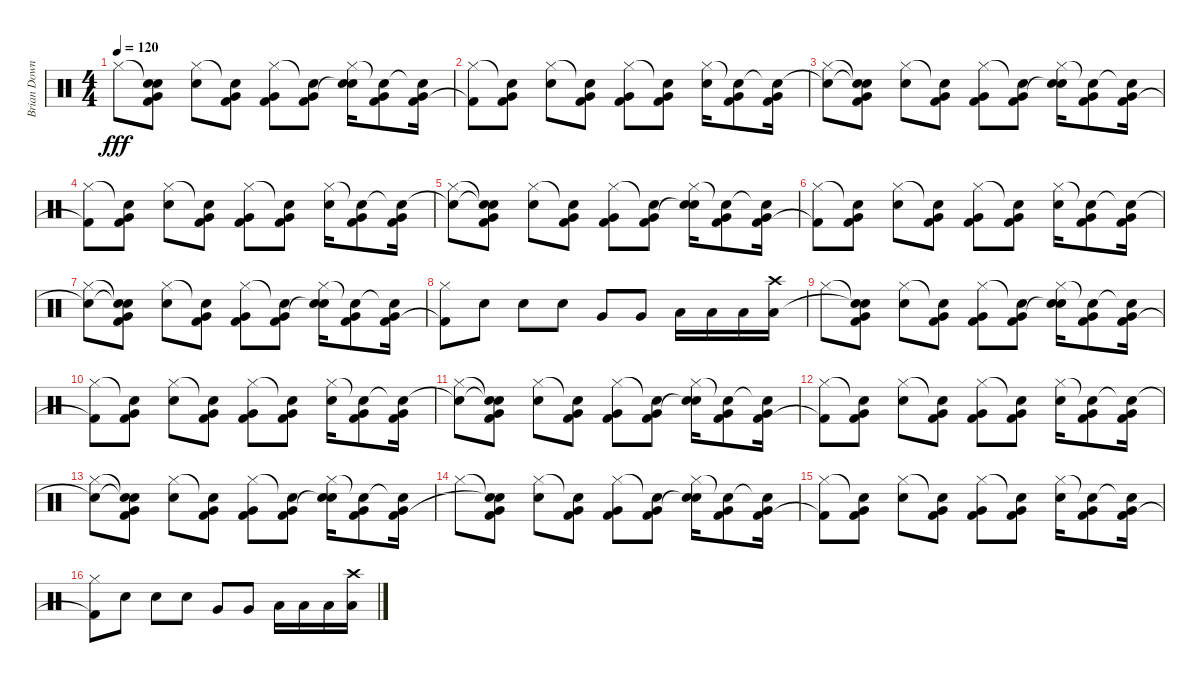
\track ("Brian Downey" "Brian Down") {instrument percussion}
\staff {score}
\articulation defaults
\ts (4 4)
\tempo 120
\clef neutral
\ks c "Hi-Hat (closed)".8{dy fff}
("Snare (hit)"{t} "Snare (hit)"{t} "Kick (hit) 2" "Very Low Tom (hit)").8 ("Hi-Hat (closed)" "Electric Snare (hit)").8 ("Snare (hit)"{t} "Kick (hit) 2" "Very Low Tom (hit)").8 ("Hi-Hat (closed)" "Kick (hit) 2" "Very Low Tom (hit)").8 ("Snare (hit)"{t} "Kick (hit) 2" "Very Low Tom (hit)").8 ("Hi-Hat (closed)" "Electric Snare (hit)" "Snare (hit)"{t}).16 ("Snare (hit)"{t} "Kick (hit) 2" "Very Low Tom (hit)").8 ("Snare (hit)"{t} "Kick (hit) 2" "Very Low Tom (hit)").16 |
("Hi-Hat (closed)" "Kick (hit) 2"{t}).8 ("Snare (hit)"{t} "Kick (hit) 2" "Very Low Tom (hit)").8 ("Hi-Hat (closed)" "Electric Snare (hit)").8 ("Snare (hit)"{t} "Kick (hit) 2" "Very Low Tom (hit)").8 ("Hi-Hat (closed)" "Kick (hit) 2" "Very Low Tom (hit)").8 ("Snare (hit)"{t} "Kick (hit) 2" "Very Low Tom (hit)").8 ("Hi-Hat (closed)" "Electric Snare (hit)").16 ("Snare (hit)"{t} "Kick (hit) 2" "Very Low Tom (hit)").8 ("Snare (hit)"{t} "Kick (hit) 2" "Very Low Tom (hit)").16 |
("Snare (hit)"{t} "Hi-Hat (closed)").8 ("Snare (hit)"{t} "Snare (hit)"{t} "Kick (hit) 2" "Very Low Tom (hit)").8 ("Hi-Hat (closed)" "Electric Snare (hit)").8 ("Snare (hit)"{t} "Kick (hit) 2" "Very Low Tom (hit)").8 ("Hi-Hat (closed)" "Kick (hit) 2" "Very Low Tom (hit)").8 ("Snare (hit)"{t} "Kick (hit) 2" "Very Low Tom (hit)").8 ("Hi-Hat (closed)" "Electric Snare (hit)" "Snare (hit)"{t}).16 ("Snare (hit)"{t} "Kick (hit) 2" "Very Low Tom (hit)").8 ("Snare (hit)"{t} "Kick (hit) 2" "Very Low Tom (hit)").16 |
("Hi-Hat (closed)" "Kick (hit) 2"{t}).8 ("Snare (hit)"{t} "Kick (hit) 2" "Very Low Tom (hit)").8 ("Hi-Hat (closed)" "Electric Snare (hit)").8 ("Snare (hit)"{t} "Kick (hit) 2" "Very Low Tom (hit)").8 ("Hi-Hat (closed)" "Kick (hit) 2" "Very Low Tom (hit)").8 ("Snare (hit)"{t} "Kick (hit) 2" "Very Low Tom (hit)").8 ("Hi-Hat (closed)" "Electric Snare (hit)").16 ("Snare (hit)"{t} "Kick (hit) 2" "Very Low Tom (hit)").8 ("Snare (hit)"{t} "Kick (hit) 2" "Very Low Tom (hit)").16 |
("Snare (hit)"{t} "Hi-Hat (closed)").8 ("Snare (hit)"{t} "Snare (hit)"{t} "Kick (hit) 2" "Very Low Tom (hit)").8 ("Hi-Hat (closed)" "Electric Snare (hit)").8 ("Snare (hit)"{t} "Kick (hit) 2" "Very Low Tom (hit)").8 ("Hi-Hat (closed)" "Kick (hit) 2" "Very Low Tom (hit)").8 ("Snare (hit)"{t} "Kick (hit) 2" "Very Low Tom (hit)").8 ("Hi-Hat (closed)" "Electric Snare (hit)" "Snare (hit)"{t}).16 ("Snare (hit)"{t} "Kick (hit) 2" "Very Low Tom (hit)").8 ("Snare (hit)"{t} "Kick (hit) 2" "Very Low Tom (hit)").16 |
("Hi-Hat (closed)" "Kick (hit) 2"{t}).8 ("Snare (hit)"{t} "Kick (hit) 2" "Very Low Tom (hit)").8 ("Hi-Hat (closed)" "Electric Snare (hit)").8 ("Snare (hit)"{t} "Kick (hit) 2" "Very Low Tom (hit)").8 ("Hi-Hat (closed)" "Kick (hit) 2" "Very Low Tom (hit)").8 ("Snare (hit)"{t} "Kick (hit) 2" "Very Low Tom (hit)").8 ("Hi-Hat (closed)" "Electric Snare (hit)").16 ("Snare (hit)"{t} "Kick (hit) 2" "Very Low Tom (hit)").8 ("Snare (hit)"{t} "Kick (hit) 2" "Very Low Tom (hit)").16 |
("Snare (hit)"{t} "Hi-Hat (closed)").8 ("Snare (hit)"{t} "Snare (hit)"{t} "Kick (hit) 2" "Very Low Tom (hit)").8 ("Hi-Hat (closed)" "Electric Snare (hit)").8 ("Snare (hit)"{t} "Kick (hit) 2" "Very Low Tom (hit)").8 ("Hi-Hat (closed)" "Kick (hit) 2" "Very Low Tom (hit)").8 ("Snare (hit)"{t} "Kick (hit) 2" "Very Low Tom (hit)").8 ("Hi-Hat (closed)" "Electric Snare (hit)" "Snare (hit)"{t}).16 ("Snare (hit)"{t} "Kick (hit) 2" "Very Low Tom (hit)").8 ("Snare (hit)"{t} "Kick (hit) 2" "Very Low Tom (hit)").16 |
("Hi-Hat (closed)" "Kick (hit) 2"{t}).8 "Electric Snare (hit)".8 "Electric Snare (hit)".8 "Electric Snare (hit)".8 "Very Low Tom (hit)".8 "Very Low Tom (hit)".8 "Low Floor Tom (hit)".16 "Low Floor Tom (hit)".16 "Low Floor Tom (hit)".16 ("Crash high (hit)" "Low Floor Tom (hit)").16 |
"Hi-Hat (closed)".8 ("Snare (hit)"{t} "Snare (hit)"{t} "Kick (hit) 2" "Very Low Tom (hit)").8 ("Hi-Hat (closed)" "Electric Snare (hit)").8 ("Snare (hit)"{t} "Kick (hit) 2" "Very Low Tom (hit)").8 ("Hi-Hat (closed)" "Kick (hit) 2" "Very Low Tom (hit)").8 ("Snare (hit)"{t} "Kick (hit) 2" "Very Low Tom (hit)").8 ("Hi-Hat (closed)" "Electric Snare (hit)" "Snare (hit)"{t}).16 ("Snare (hit)"{t} "Kick (hit) 2" "Very Low Tom (hit)").8 ("Snare (hit)"{t} "Kick (hit) 2" "Very Low Tom (hit)").16 |
("Hi-Hat (closed)" "Kick (hit) 2"{t}).8 ("Snare (hit)"{t} "Kick (hit) 2" "Very Low Tom (hit)").8 ("Hi-Hat (closed)" "Electric Snare (hit)").8 ("Snare (hit)"{t} "Kick (hit) 2" "Very Low Tom (hit)").8 ("Hi-Hat (closed)" "Kick (hit) 2" "Very Low Tom (hit)").8 ("Snare (hit)"{t} "Kick (hit) 2" "Very Low Tom (hit)").8 ("Hi-Hat (closed)" "Electric Snare (hit)").16 ("Snare (hit)"{t} "Kick (hit) 2" "Very Low Tom (hit)").8 ("Snare (hit)"{t} "Kick (hit) 2" "Very Low Tom (hit)").16 |
("Snare (hit)"{t} "Hi-Hat (closed)").8 ("Snare (hit)"{t} "Snare (hit)"{t} "Kick (hit) 2" "Very Low Tom (hit)").8 ("Hi-Hat (closed)" "Electric Snare (hit)").8 ("Snare (hit)"{t} "Kick (hit) 2" "Very Low Tom (hit)").8 ("Hi-Hat (closed)" "Kick (hit) 2" "Very Low Tom (hit)").8 ("Snare (hit)"{t} "Kick (hit) 2" "Very Low Tom (hit)").8 ("Hi-Hat (closed)" "Electric Snare (hit)" "Snare (hit)"{t}).16 ("Snare (hit)"{t} "Kick (hit) 2" "Very Low Tom (hit)").8 ("Snare (hit)"{t} "Kick (hit) 2" "Very Low Tom (hit)").16 |
("Hi-Hat (closed)" "Kick (hit) 2"{t}).8 ("Snare (hit)"{t} "Kick (hit) 2" "Very Low Tom (hit)").8 ("Hi-Hat (closed)" "Electric Snare (hit)").8 ("Snare (hit)"{t} "Kick (hit) 2" "Very Low Tom (hit)").8 ("Hi-Hat (closed)" "Kick (hit) 2" "Very Low Tom (hit)").8 ("Snare (hit)"{t} "Kick (hit) 2" "Very Low Tom (hit)").8 ("Hi-Hat (closed)" "Electric Snare (hit)").16 ("Snare (hit)"{t} "Kick (hit) 2" "Very Low Tom (hit)").8 ("Snare (hit)"{t} "Kick (hit) 2" "Very Low Tom (hit)").16 |
("Snare (hit)"{t} "Hi-Hat (closed)").8 ("Snare (hit)"{t} "Snare (hit)"{t} "Kick (hit) 2" "Very Low Tom (hit)").8 ("Hi-Hat (closed)" "Electric Snare (hit)").8 ("Snare (hit)"{t} "Kick (hit) 2" "Very Low Tom (hit)").8 ("Hi-Hat (closed)" "Kick (hit) 2" "Very Low Tom (hit)").8 ("Snare (hit)"{t} "Kick (hit) 2" "Very Low Tom (hit)").8 ("Hi-Hat (closed)" "Electric Snare (hit)" "Snare (hit)"{t}).16 ("Snare (hit)"{t} "Kick (hit) 2" "Very Low Tom (hit)").8 ("Snare (hit)"{t} "Kick (hit) 2" "Very Low Tom (hit)").16 |
"Hi-Hat (closed)".8 ("Snare (hit)"{t} "Snare (hit)"{t} "Kick (hit) 2" "Very Low Tom (hit)").8 ("Hi-Hat (closed)" "Electric Snare (hit)").8 ("Snare (hit)"{t} "Kick (hit) 2" "Very Low Tom (hit)").8 ("Hi-Hat (closed)" "Kick (hit) 2" "Very Low Tom (hit)").8 ("Snare (hit)"{t} "Kick (hit) 2" "Very Low Tom (hit)").8 ("Hi-Hat (closed)" "Electric Snare (hit)" "Snare (hit)"{t}).16 ("Snare (hit)"{t} "Kick (hit) 2" "Very Low Tom (hit)").8 ("Snare (hit)"{t} "Kick (hit) 2" "Very Low Tom (hit)").16 |
("Hi-Hat (closed)" "Kick (hit) 2"{t}).8 ("Snare (hit)"{t} "Kick (hit) 2" "Very Low Tom (hit)").8 ("Hi-Hat (closed)" "Electric Snare (hit)").8 ("Snare (hit)"{t} "Kick (hit) 2" "Very Low Tom (hit)").8 ("Hi-Hat (closed)" "Kick (hit) 2" "Very Low Tom (hit)").8 ("Snare (hit)"{t} "Kick (hit) 2" "Very Low Tom (hit)").8 ("Hi-Hat (closed)" "Electric Snare (hit)").16 ("Snare (hit)"{t} "Kick (hit) 2" "Very Low Tom (hit)").8 ("Snare (hit)"{t} "Kick (hit) 2" "Very Low Tom (hit)").16 |
("Hi-Hat (closed)" "Kick (hit) 2"{t}).8 "Electric Snare (hit)".8 "Electric Snare (hit)".8 "Electric Snare (hit)".8 "Very Low Tom (hit)".8 "Very Low Tom (hit)".8 "Low Floor Tom (hit)".16 "Low Floor Tom (hit)".16 "Low Floor Tom (hit)".16 ("Crash high (hit)" "Low Floor Tom (hit)").16
